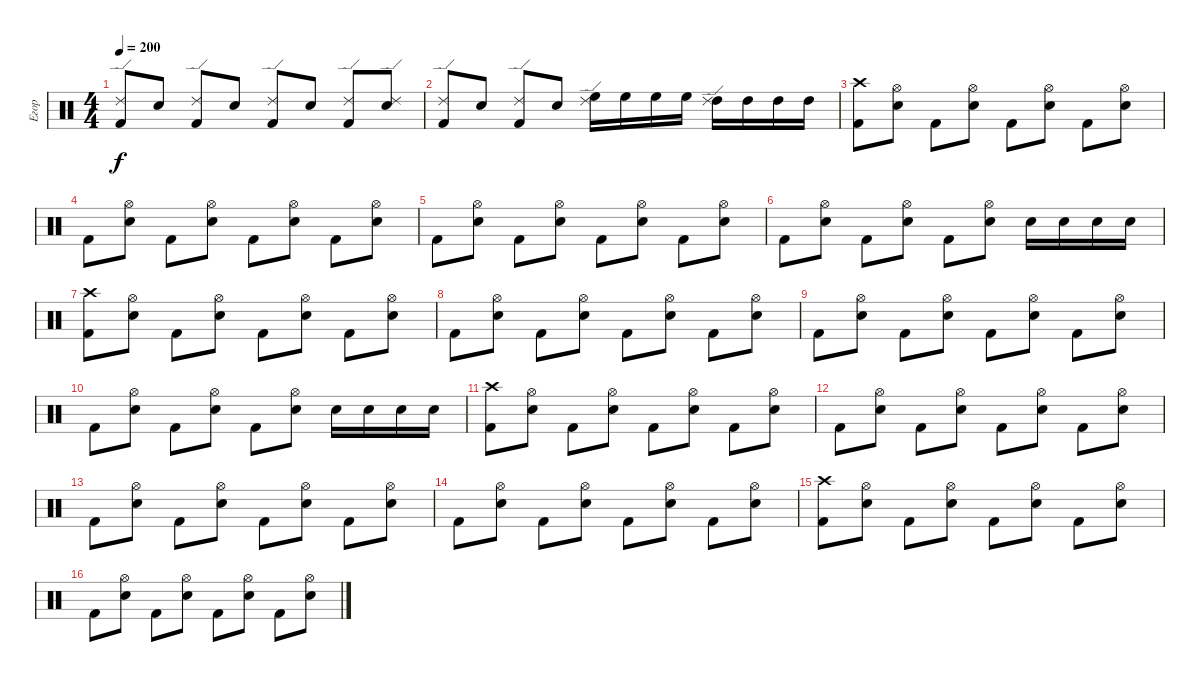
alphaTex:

\track ("Егор" "Егор") {instrument percussion}
\staff {score}
\articulation defaults
\ts (4 4)
\tempo 200
\clef neutral
\ks c
("Kick (hit) 2" "Ride (edge) 2").8{dy f} "Snare (hit) 2".8 ("Kick (hit) 2" "Ride (edge) 2").8 "Snare (hit) 2".8 ("Kick (hit) 2" "Ride (edge) 2").8 "Snare (hit) 2".8 ("Kick (hit) 2" "Ride (edge) 2").8 ("Snare (hit) 2" "Ride (edge) 2").8 |
("Kick (hit) 2" "Ride (edge) 2").8 "Snare (hit) 2".8 ("Kick (hit) 2" "Ride (edge) 2").8 "Snare (hit) 2".8 ("High Floor Tom (hit)" "Ride (edge) 2").16 "High Floor Tom (hit)".16 "High Floor Tom (hit)".16 "High Floor Tom (hit)".16 ("High Tom (hit)" "Ride (edge) 2").16 "High Tom (hit)".16 "High Tom (hit)".16 "High Tom (hit)".16 |
("Crash high (hit)" "Kick (hit) 2").8 ("Hi-Hat (open)" "Snare (hit) 2").8 "Kick (hit) 2".8 ("Hi-Hat (open)" "Snare (hit) 2").8 "Kick (hit) 2".8 ("Hi-Hat (open)" "Snare (hit) 2").8 "Kick (hit) 2".8 ("Hi-Hat (open)" "Snare (hit) 2").8 |
"Kick (hit) 2".8 ("Hi-Hat (open)" "Snare (hit) 2").8 "Kick (hit) 2".8 ("Hi-Hat (open)" "Snare (hit) 2").8 "Kick (hit) 2".8 ("Hi-Hat (open)" "Snare (hit) 2").8 "Kick (hit) 2".8 ("Snare (hit) 2" "Hi-Hat (open)").8 |
"Kick (hit) 2".8 ("Snare (hit) 2" "Hi-Hat (open)").8 "Kick (hit) 2".8 ("Hi-Hat (open)" "Snare (hit) 2").8 "Kick (hit) 2".8 ("Hi-Hat (open)" "Snare (hit) 2").8 "Kick (hit) 2".8 ("Hi-Hat (open)" "Snare (hit) 2").8 |
"Kick (hit) 2".8 ("Hi-Hat (open)" "Snare (hit) 2").8 "Kick (hit) 2".8 ("Hi-Hat (open)" "Snare (hit) 2").8 "Kick (hit) 2".8 ("Hi-Hat (open)" "Snare (hit) 2").8 "Snare (hit) 2".16 "Snare (hit) 2".16 "Snare (hit) 2".16 "Snare (hit) 2".16 |
("Kick (hit) 2" "Crash high (hit)").8 ("Snare (hit) 2" "Hi-Hat (open)").8 "Kick (hit) 2".8 ("Snare (hit) 2" "Hi-Hat (open)").8 "Kick (hit) 2".8 ("Hi-Hat (open)" "Snare (hit) 2").8 "Kick (hit) 2".8 ("Hi-Hat (open)" "Snare (hit) 2").8 |
"Kick (hit) 2".8 ("Hi-Hat (open)" "Snare (hit) 2").8 "Kick (hit) 2".8 ("Hi-Hat (open)" "Snare (hit) 2").8 "Kick (hit) 2".8 ("Hi-Hat (open)" "Snare (hit) 2").8 "Kick (hit) 2".8 ("Hi-Hat (open)" "Snare (hit) 2").8 |
"Kick (hit) 2".8 ("Hi-Hat (open)" "Snare (hit) 2").8 "Kick (hit) 2".8 ("Snare (hit) 2" "Hi-Hat (open)").8 "Kick (hit) 2".8 ("Hi-Hat (open)" "Snare (hit) 2").8 "Kick (hit) 2".8 ("Hi-Hat (open)" "Snare (hit) 2").8 |
"Kick (hit) 2".8 ("Hi-Hat (open)" "Snare (hit) 2").8 "Kick (hit) 2".8 ("Hi-Hat (open)" "Snare (hit) 2").8 "Kick (hit) 2".8 ("Hi-Hat (open)" "Snare (hit) 2").8 "Snare (hit) 2".16 "Snare (hit) 2".16 "Snare (hit) 2".16 "Snare (hit) 2".16 |
("Crash high (hit)" "Kick (hit) 2").8 ("Hi-Hat (open)" "Snare (hit) 2").8 "Kick (hit) 2".8 ("Hi-Hat (open)" "Snare (hit) 2").8 "Kick (hit) 2".8 ("Snare (hit) 2" "Hi-Hat (open)").8 "Kick (hit) 2".8 ("Hi-Hat (open)" "Snare (hit) 2").8 |
"Kick (hit) 2".8 ("Hi-Hat (open)" "Snare (hit) 2").8 "Kick (hit) 2".8 ("Hi-Hat (open)" "Snare (hit) 2").8 "Kick (hit) 2".8 ("Hi-Hat (open)" "Snare (hit) 2").8 "Kick (hit) 2".8 ("Hi-Hat (open)" "Snare (hit) 2").8 |
"Kick (hit) 2".8 ("Hi-Hat (open)" "Snare (hit) 2").8 "Kick (hit) 2".8 ("Hi-Hat (open)" "Snare (hit) 2").8 "Kick (hit) 2".8 ("Hi-Hat (open)" "Snare (hit) 2").8 "Kick (hit) 2".8 ("Hi-Hat (open)" "Snare (hit) 2").8 |
"Kick (hit) 2".8 ("Snare (hit) 2" "Hi-Hat (open)").8 "Kick (hit) 2".8 ("Hi-Hat (open)" "Snare (hit) 2").8 "Kick (hit) 2".8 ("Hi-Hat (open)" "Snare (hit) 2").8 "Kick (hit) 2".8 ("Hi-Hat (open)" "Snare (hit) 2").8 |
("Crash high (hit)" "Kick (hit) 2").8 ("Hi-Hat (open)" "Snare (hit) 2").8 "Kick (hit) 2".8 ("Hi-Hat (open)" "Snare (hit) 2").8 "Kick (hit) 2".8 ("Hi-Hat (open)" "Snare (hit) 2").8 "Kick (hit) 2".8 ("Hi-Hat (open)" "Snare (hit) 2").8 |
"Kick (hit) 2".8 ("Hi-Hat (open)" "Snare (hit) 2").8 "Kick (hit) 2".8 ("Snare (hit) 2" "Hi-Hat (open)").8 "Kick (hit) 2".8 ("Snare (hit) 2" "Hi-Hat (open)").8 "Kick (hit) 2".8 ("Hi-Hat (open)" "Snare (hit) 2").8
